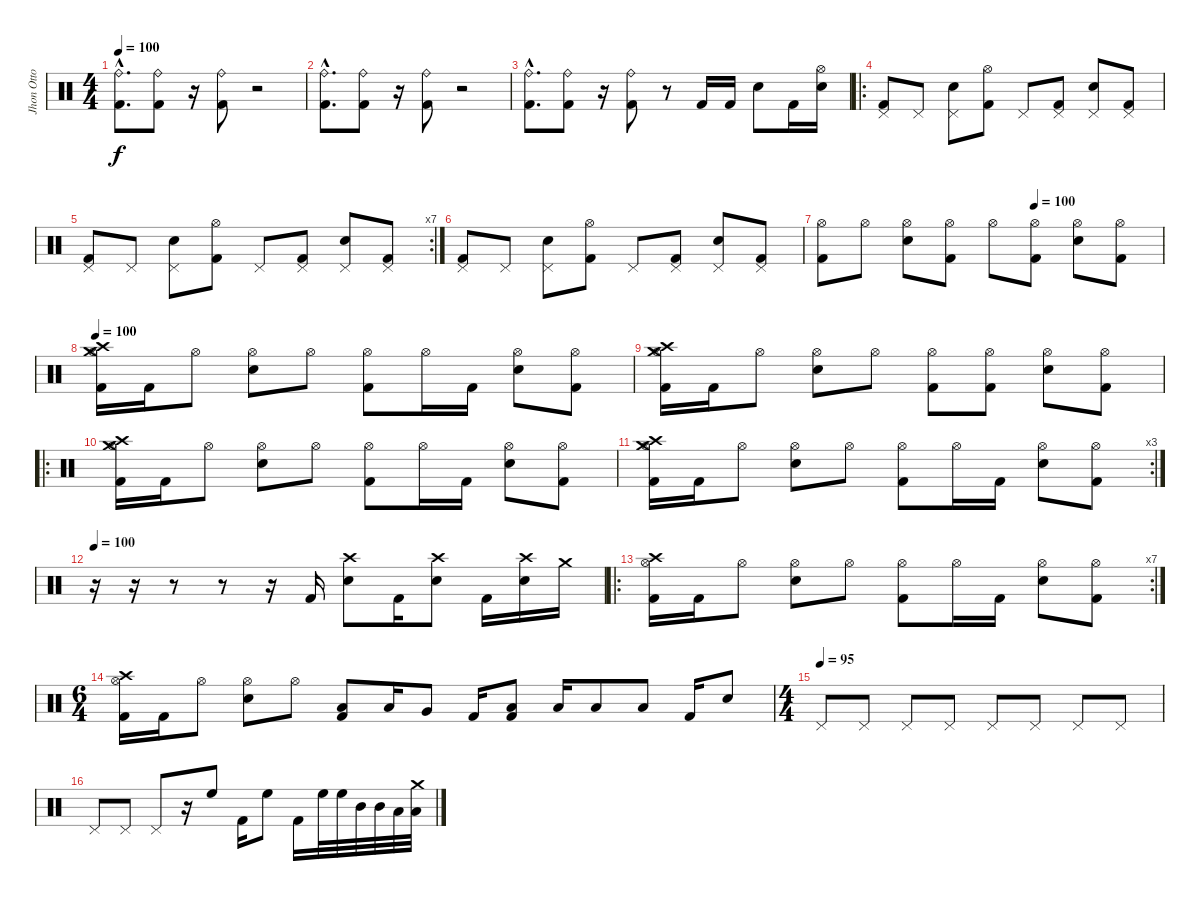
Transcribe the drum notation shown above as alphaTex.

\track ("Jhon Otto" "Jhon Otto") {instrument percussion}
\staff {score}
\articulation defaults
\ts (4 4)
\tempo 100
\clef neutral
\ks c
("Ride (bell)"{hac} "Kick (hit) 2"{hac}).8{d dy f} ("Ride (bell)" "Kick (hit) 2").8 r.16 ("Ride (bell)" "Kick (hit) 2").8 r.2 |
("Ride (bell)"{hac} "Kick (hit) 2"{hac}).8{d} ("Ride (bell)" "Kick (hit) 2").8 r.16 ("Ride (bell)" "Kick (hit) 2").8 r.2 |
("Ride (bell)"{hac} "Kick (hit) 2"{hac}).8{d} ("Ride (bell)" "Kick (hit) 2").8 r.16 ("Ride (bell)" "Kick (hit) 2").8 r.8 "Kick (hit) 2".16 "Kick (hit) 2".16 "Snare (hit) 2".8 "Kick (hit) 2".16 ("Hi-Hat (open)" "Snare (hit) 2").16 |
\ro
("Pedal Hi-Hat (hit)" "Kick (hit) 2").8 "Pedal Hi-Hat (hit)".8 ("Pedal Hi-Hat (hit)" "Snare (hit) 2").8 ("Hi-Hat (open)" "Kick (hit) 2").8 "Pedal Hi-Hat (hit)".8 ("Pedal Hi-Hat (hit)" "Kick (hit) 2").8 ("Pedal Hi-Hat (hit)" "Snare (hit) 2").8 ("Pedal Hi-Hat (hit)" "Kick (hit) 2").8 |
\rc 7
("Pedal Hi-Hat (hit)" "Kick (hit) 2").8 "Pedal Hi-Hat (hit)".8 ("Pedal Hi-Hat (hit)" "Snare (hit) 2").8 ("Hi-Hat (open)" "Kick (hit) 2").8 "Pedal Hi-Hat (hit)".8 ("Pedal Hi-Hat (hit)" "Kick (hit) 2").8 ("Pedal Hi-Hat (hit)" "Snare (hit) 2").8 ("Pedal Hi-Hat (hit)" "Kick (hit) 2").8 |
("Pedal Hi-Hat (hit)" "Kick (hit) 2").8 "Pedal Hi-Hat (hit)".8 ("Pedal Hi-Hat (hit)" "Snare (hit) 2").8 ("Hi-Hat (open)" "Kick (hit) 2").8 "Pedal Hi-Hat (hit)".8 ("Pedal Hi-Hat (hit)" "Kick (hit) 2").8 ("Pedal Hi-Hat (hit)" "Snare (hit) 2").8 ("Pedal Hi-Hat (hit)" "Kick (hit) 2").8 |
\tempo (100 0.625)
("Hi-Hat (open)" "Kick (hit) 2").8 "Hi-Hat (open)".8 ("Hi-Hat (open)" "Snare (hit) 2").8 ("Hi-Hat (open)" "Kick (hit) 2").8 "Hi-Hat (open)".8 ("Hi-Hat (open)" "Kick (hit) 2").8 ("Hi-Hat (open)" "Snare (hit) 2").8 ("Hi-Hat (open)" "Kick (hit) 2").8 |
\tempo 100
("Crash high (hit)" "Hi-Hat (open)" "Kick (hit) 2" "Crash medium (hit)").16 "Kick (hit) 2".16 "Hi-Hat (open)".8 ("Hi-Hat (open)" "Snare (hit) 2").8 "Hi-Hat (open)".8 ("Hi-Hat (open)" "Kick (hit) 2").8 "Hi-Hat (open)".16 "Kick (hit) 2".16 ("Hi-Hat (open)" "Snare (hit) 2").8 ("Hi-Hat (open)" "Kick (hit) 2").8 |
("Crash high (hit)" "Hi-Hat (open)" "Kick (hit) 2" "Crash medium (hit)").16 "Kick (hit) 2".16 "Hi-Hat (open)".8 ("Hi-Hat (open)" "Snare (hit) 2").8 "Hi-Hat (open)".8 ("Hi-Hat (open)" "Kick (hit) 2").8 ("Hi-Hat (open)" "Kick (hit) 2").8 ("Hi-Hat (open)" "Snare (hit) 2").8 ("Hi-Hat (open)" "Kick (hit) 2").8 |
\ro
("Crash high (hit)" "Hi-Hat (open)" "Kick (hit) 2" "Crash medium (hit)").16 "Kick (hit) 2".16 "Hi-Hat (open)".8 ("Hi-Hat (open)" "Snare (hit) 2").8 "Hi-Hat (open)".8 ("Hi-Hat (open)" "Kick (hit) 2").8 "Hi-Hat (open)".16 "Kick (hit) 2".16 ("Hi-Hat (open)" "Snare (hit) 2").8 ("Hi-Hat (open)" "Kick (hit) 2").8 |
\rc 3
("Crash high (hit)" "Hi-Hat (open)" "Kick (hit) 2" "Crash medium (hit)").16 "Kick (hit) 2".16 "Hi-Hat (open)".8 ("Hi-Hat (open)" "Snare (hit) 2").8 "Hi-Hat (open)".8 ("Hi-Hat (open)" "Kick (hit) 2").8 "Hi-Hat (open)".16 "Kick (hit) 2".16 ("Hi-Hat (open)" "Snare (hit) 2").8 ("Hi-Hat (open)" "Kick (hit) 2").8 |
\tempo 100
r.16 r.16 r.8 r.8 r.16 "Kick (hit) 2".16 ("Crash high (hit)" "Snare (hit) 2").8 "Kick (hit) 2".16 ("Crash high (hit)" "Snare (hit) 2").8 "Kick (hit) 2".16 ("Crash high (hit)" "Snare (hit) 2").16 "Crash medium (hit)".16 |
\ro
\rc 7
("Crash high (hit)" "Hi-Hat (open)" "Kick (hit) 2").16 "Kick (hit) 2".16 "Hi-Hat (open)".8 ("Hi-Hat (open)" "Snare (hit) 2").8 "Hi-Hat (open)".8 ("Hi-Hat (open)" "Kick (hit) 2").8 "Hi-Hat (open)".16 "Kick (hit) 2".16 ("Hi-Hat (open)" "Snare (hit) 2").8 ("Hi-Hat (open)" "Kick (hit) 2").8 |
\ts (6 4)
("Crash high (hit)" "Hi-Hat (open)" "Kick (hit) 2").16 "Kick (hit) 2".16 "Hi-Hat (open)".8 ("Hi-Hat (open)" "Snare (hit) 2").8 "Hi-Hat (open)".8 ("Low Floor Tom (hit)" "Kick (hit) 2").8 "Low Floor Tom (hit)".16 "Very Low Tom (hit)".8 "Kick (hit) 2".16 ("Low Floor Tom (hit)" "Kick (hit) 2").8 "Low Floor Tom (hit)".16 "Low Floor Tom (hit)".8 "Low Floor Tom (hit)".8 "Kick (hit) 2".16 "Snare (hit) 2".8 |
\ts (4 4)
\tempo (95)
"Pedal Hi-Hat (hit)".8 "Pedal Hi-Hat (hit)".8 "Pedal Hi-Hat (hit)".8 "Pedal Hi-Hat (hit)".8 "Pedal Hi-Hat (hit)".8 "Pedal Hi-Hat (hit)".8 "Pedal Hi-Hat (hit)".8 "Pedal Hi-Hat (hit)".8 |
"Pedal Hi-Hat (hit)".8 "Pedal Hi-Hat (hit)".8 "Pedal Hi-Hat (hit)".8 r.16 "High Floor Tom (hit)".8 "Kick (hit) 2".16 "High Floor Tom (hit)".8 "Kick (hit) 2".16 "High Floor Tom (hit)".32 "High Floor Tom (hit)".32 "Mid Tom (hit)".32 "Mid Tom (hit)".32 "Low Tom (hit)".32 ("Crash medium (hit)" "Low Tom (hit)").32
